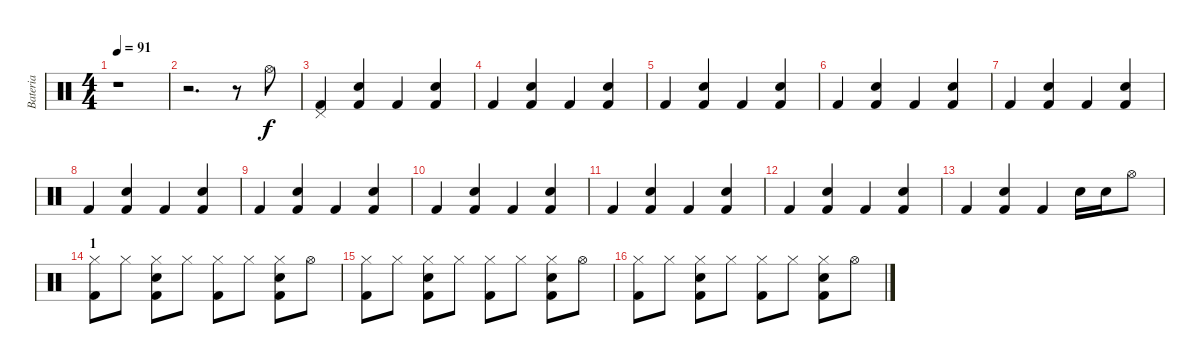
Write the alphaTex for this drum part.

\track ("Bateria" "Bateria") {instrument percussion}
\staff {score}
\articulation defaults
\ts (4 4)
\tempo 91
\clef neutral
\ks c
r.1{dy f} |
r.2{d} r.8 "Hi-Hat (open)".8 |
("Pedal Hi-Hat (hit)" "Kick (hit) 2").4 ("Electric Snare (hit)" "Kick (hit) 2").4 "Kick (hit) 2".4 ("Electric Snare (hit)" "Kick (hit) 2").4 |
"Kick (hit) 2".4 ("Electric Snare (hit)" "Kick (hit) 2").4 "Kick (hit) 2".4 ("Electric Snare (hit)" "Kick (hit) 2").4 |
"Kick (hit) 2".4 ("Electric Snare (hit)" "Kick (hit) 2").4 "Kick (hit) 2".4 ("Electric Snare (hit)" "Kick (hit) 2").4 |
"Kick (hit) 2".4 ("Electric Snare (hit)" "Kick (hit) 2").4 "Kick (hit) 2".4 ("Electric Snare (hit)" "Kick (hit) 2").4 |
"Kick (hit) 2".4 ("Electric Snare (hit)" "Kick (hit) 2").4 "Kick (hit) 2".4 ("Electric Snare (hit)" "Kick (hit) 2").4 |
"Kick (hit) 2".4 ("Electric Snare (hit)" "Kick (hit) 2").4 "Kick (hit) 2".4 ("Electric Snare (hit)" "Kick (hit) 2").4 |
"Kick (hit) 2".4 ("Electric Snare (hit)" "Kick (hit) 2").4 "Kick (hit) 2".4 ("Electric Snare (hit)" "Kick (hit) 2").4 |
"Kick (hit) 2".4 ("Electric Snare (hit)" "Kick (hit) 2").4 "Kick (hit) 2".4 ("Electric Snare (hit)" "Kick (hit) 2").4 |
"Kick (hit) 2".4 ("Electric Snare (hit)" "Kick (hit) 2").4 "Kick (hit) 2".4 ("Electric Snare (hit)" "Kick (hit) 2").4 |
"Kick (hit) 2".4 ("Electric Snare (hit)" "Kick (hit) 2").4 "Kick (hit) 2".4 ("Electric Snare (hit)" "Kick (hit) 2").4 |
"Kick (hit) 2".4 ("Electric Snare (hit)" "Kick (hit) 2").4 "Kick (hit) 2".4 "Electric Snare (hit)".16 "Electric Snare (hit)".16 "Hi-Hat (open)".8 |
\section ("" "1")
("Hi-Hat (closed)" "Kick (hit) 2").8 "Hi-Hat (closed)".8 ("Hi-Hat (closed)" "Electric Snare (hit)" "Kick (hit) 2").8 "Hi-Hat (closed)".8 ("Hi-Hat (closed)" "Kick (hit) 2").8 "Hi-Hat (closed)".8 ("Hi-Hat (closed)" "Electric Snare (hit)" "Kick (hit) 2").8 "Hi-Hat (open)".8 |
("Hi-Hat (closed)" "Kick (hit) 2").8 "Hi-Hat (closed)".8 ("Hi-Hat (closed)" "Electric Snare (hit)" "Kick (hit) 2").8 "Hi-Hat (closed)".8 ("Hi-Hat (closed)" "Kick (hit) 2").8 "Hi-Hat (closed)".8 ("Hi-Hat (closed)" "Electric Snare (hit)" "Kick (hit) 2").8 "Hi-Hat (open)".8 |
("Hi-Hat (closed)" "Kick (hit) 2").8 "Hi-Hat (closed)".8 ("Hi-Hat (closed)" "Electric Snare (hit)" "Kick (hit) 2").8 "Hi-Hat (closed)".8 ("Hi-Hat (closed)" "Kick (hit) 2").8 "Hi-Hat (closed)".8 ("Hi-Hat (closed)" "Electric Snare (hit)" "Kick (hit) 2").8 "Hi-Hat (open)".8
